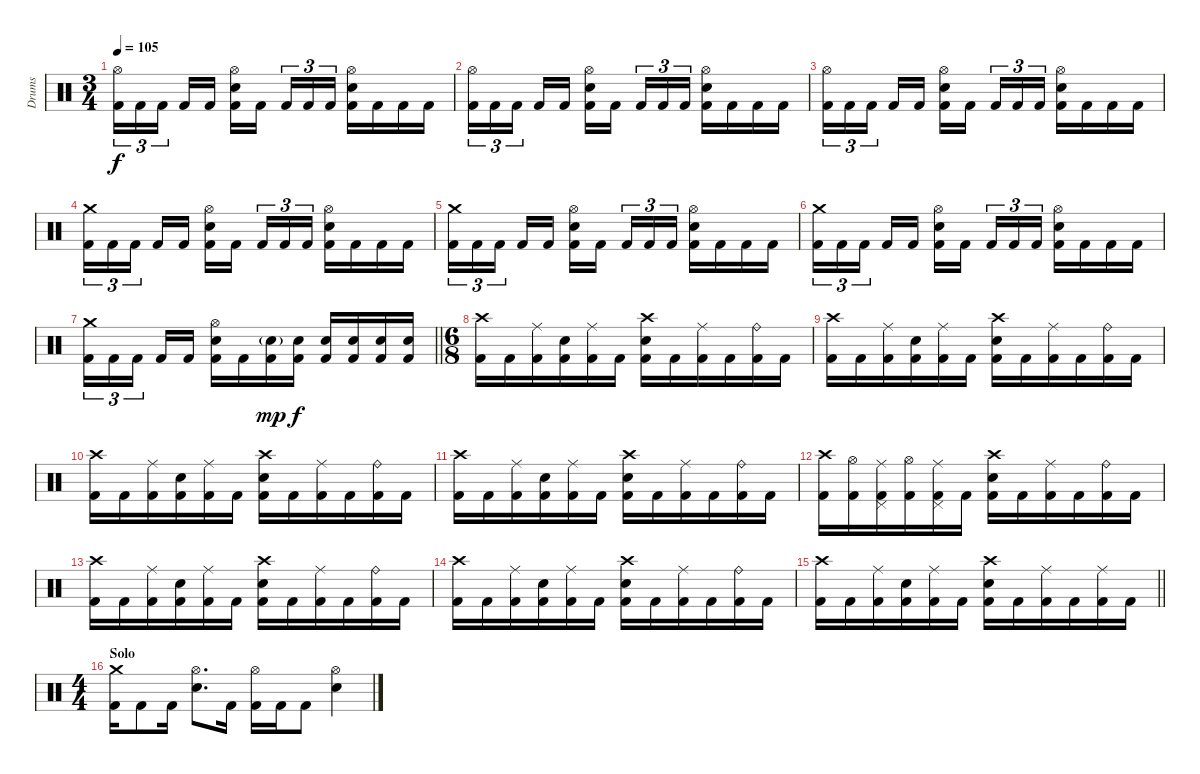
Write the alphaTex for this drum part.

\track ("Drums" "Drums") {instrument percussion}
\staff {score}
\articulation defaults
\ts (3 4)
\tempo 105
\clef neutral
\ks c
("Hi-Hat (open)" "Kick (hit) 2").16{tu (3 2) dy f} "Kick (hit) 2".16{tu (3 2)} "Kick (hit) 2".16{tu (3 2) beam splitsecondary} "Kick (hit) 2".16 "Kick (hit) 2".16 ("Hi-Hat (open)" "Electric Snare (hit)" "Kick (hit) 2").16 "Kick (hit) 2".16{beam splitsecondary} "Kick (hit) 2".16{tu (3 2)} "Kick (hit) 2".16{tu (3 2)} "Kick (hit) 2".16{tu (3 2)} ("Hi-Hat (open)" "Electric Snare (hit)" "Kick (hit) 2").16 "Kick (hit) 2".16 "Kick (hit) 2".16 "Kick (hit) 2".16 |
("Hi-Hat (open)" "Kick (hit) 2").16{tu (3 2)} "Kick (hit) 2".16{tu (3 2)} "Kick (hit) 2".16{tu (3 2) beam splitsecondary} "Kick (hit) 2".16 "Kick (hit) 2".16 ("Hi-Hat (open)" "Electric Snare (hit)" "Kick (hit) 2").16 "Kick (hit) 2".16{beam splitsecondary} "Kick (hit) 2".16{tu (3 2)} "Kick (hit) 2".16{tu (3 2)} "Kick (hit) 2".16{tu (3 2)} ("Hi-Hat (open)" "Electric Snare (hit)" "Kick (hit) 2").16 "Kick (hit) 2".16 "Kick (hit) 2".16 "Kick (hit) 2".16 |
("Hi-Hat (open)" "Kick (hit) 2").16{tu (3 2)} "Kick (hit) 2".16{tu (3 2)} "Kick (hit) 2".16{tu (3 2) beam splitsecondary} "Kick (hit) 2".16 "Kick (hit) 2".16 ("Hi-Hat (open)" "Electric Snare (hit)" "Kick (hit) 2").16 "Kick (hit) 2".16{beam splitsecondary} "Kick (hit) 2".16{tu (3 2)} "Kick (hit) 2".16{tu (3 2)} "Kick (hit) 2".16{tu (3 2)} ("Hi-Hat (open)" "Electric Snare (hit)" "Kick (hit) 2").16 "Kick (hit) 2".16 "Kick (hit) 2".16 "Kick (hit) 2".16 |
("Crash medium (hit)" "Kick (hit) 2").16{tu (3 2)} "Kick (hit) 2".16{tu (3 2)} "Kick (hit) 2".16{tu (3 2) beam splitsecondary} "Kick (hit) 2".16 "Kick (hit) 2".16 ("Hi-Hat (open)" "Electric Snare (hit)" "Kick (hit) 2").16 "Kick (hit) 2".16{beam splitsecondary} "Kick (hit) 2".16{tu (3 2)} "Kick (hit) 2".16{tu (3 2)} "Kick (hit) 2".16{tu (3 2)} ("Hi-Hat (open)" "Electric Snare (hit)" "Kick (hit) 2").16 "Kick (hit) 2".16 "Kick (hit) 2".16 "Kick (hit) 2".16 |
("Crash medium (hit)" "Kick (hit) 2").16{tu (3 2)} "Kick (hit) 2".16{tu (3 2)} "Kick (hit) 2".16{tu (3 2) beam splitsecondary} "Kick (hit) 2".16 "Kick (hit) 2".16 ("Hi-Hat (open)" "Electric Snare (hit)" "Kick (hit) 2").16 "Kick (hit) 2".16{beam splitsecondary} "Kick (hit) 2".16{tu (3 2)} "Kick (hit) 2".16{tu (3 2)} "Kick (hit) 2".16{tu (3 2)} ("Hi-Hat (open)" "Electric Snare (hit)" "Kick (hit) 2").16 "Kick (hit) 2".16 "Kick (hit) 2".16 "Kick (hit) 2".16 |
("Crash medium (hit)" "Kick (hit) 2").16{tu (3 2)} "Kick (hit) 2".16{tu (3 2)} "Kick (hit) 2".16{tu (3 2) beam splitsecondary} "Kick (hit) 2".16 "Kick (hit) 2".16 ("Hi-Hat (open)" "Electric Snare (hit)" "Kick (hit) 2").16 "Kick (hit) 2".16{beam splitsecondary} "Kick (hit) 2".16{tu (3 2)} "Kick (hit) 2".16{tu (3 2)} "Kick (hit) 2".16{tu (3 2)} ("Hi-Hat (open)" "Electric Snare (hit)" "Kick (hit) 2").16 "Kick (hit) 2".16 "Kick (hit) 2".16 "Kick (hit) 2".16 |
\barLineRight lightlight
("Crash medium (hit)" "Kick (hit) 2").16{tu (3 2)} "Kick (hit) 2".16{tu (3 2)} "Kick (hit) 2".16{tu (3 2) beam splitsecondary} "Kick (hit) 2".16 "Kick (hit) 2".16 ("Hi-Hat (open)" "Electric Snare (hit)" "Kick (hit) 2").16 "Kick (hit) 2".16 ("Electric Snare (hit)"{g} "Kick (hit) 2").16{dy mp} ("Electric Snare (hit)" "Kick (hit) 2").16{dy f} ("Electric Snare (hit)" "Kick (hit) 2").16 ("Electric Snare (hit)" "Kick (hit) 2").16 ("Electric Snare (hit)" "Kick (hit) 2").16 ("Electric Snare (hit)" "Kick (hit) 2").16 |
\ts (6 8)
("Crash high (hit)" "Kick (hit) 2").16 "Kick (hit) 2".16 ("Ride (middle)" "Kick (hit) 2").16 ("Electric Snare (hit)" "Kick (hit) 2").16 ("Ride (middle)" "Kick (hit) 2").16 "Kick (hit) 2".16 ("Crash high (hit)" "Electric Snare (hit)" "Kick (hit) 2").16 "Kick (hit) 2".16 ("Ride (middle)" "Kick (hit) 2").16 "Kick (hit) 2".16 ("Ride (bell)" "Kick (hit) 2").16 "Kick (hit) 2".16 |
("Crash high (hit)" "Kick (hit) 2").16 "Kick (hit) 2".16 ("Ride (middle)" "Kick (hit) 2").16 ("Electric Snare (hit)" "Kick (hit) 2").16 ("Ride (middle)" "Kick (hit) 2").16 "Kick (hit) 2".16 ("Crash high (hit)" "Electric Snare (hit)" "Kick (hit) 2").16 "Kick (hit) 2".16 ("Ride (middle)" "Kick (hit) 2").16 "Kick (hit) 2".16 ("Ride (bell)" "Kick (hit) 2").16 "Kick (hit) 2".16 |
("Crash high (hit)" "Kick (hit) 2").16 "Kick (hit) 2".16 ("Ride (middle)" "Kick (hit) 2").16 ("Electric Snare (hit)" "Kick (hit) 2").16 ("Ride (middle)" "Kick (hit) 2").16 "Kick (hit) 2".16 ("Crash high (hit)" "Electric Snare (hit)" "Kick (hit) 2").16 "Kick (hit) 2".16 ("Ride (middle)" "Kick (hit) 2").16 "Kick (hit) 2".16 ("Ride (bell)" "Kick (hit) 2").16 "Kick (hit) 2".16 |
("Crash high (hit)" "Kick (hit) 2").16 "Kick (hit) 2".16 ("Ride (middle)" "Kick (hit) 2").16 ("Electric Snare (hit)" "Kick (hit) 2").16 ("Ride (middle)" "Kick (hit) 2").16 "Kick (hit) 2".16 ("Crash high (hit)" "Electric Snare (hit)" "Kick (hit) 2").16 "Kick (hit) 2".16 ("Ride (middle)" "Kick (hit) 2").16 "Kick (hit) 2".16 ("Ride (bell)" "Kick (hit) 2").16 "Kick (hit) 2".16 |
("Crash high (hit)" "Kick (hit) 2").16 ("Hi-Hat (open)" "Kick (hit) 2").16 ("Ride (middle)" "Pedal Hi-Hat (hit)" "Kick (hit) 2").16 ("Hi-Hat (open)" "Kick (hit) 2").16 ("Ride (middle)" "Pedal Hi-Hat (hit)" "Kick (hit) 2").16 "Kick (hit) 2".16 ("Crash high (hit)" "Electric Snare (hit)" "Kick (hit) 2").16 "Kick (hit) 2".16 ("Ride (middle)" "Kick (hit) 2").16 "Kick (hit) 2".16 ("Ride (bell)" "Kick (hit) 2").16 "Kick (hit) 2".16 |
("Crash high (hit)" "Kick (hit) 2").16 "Kick (hit) 2".16 ("Ride (middle)" "Kick (hit) 2").16 ("Electric Snare (hit)" "Kick (hit) 2").16 ("Ride (middle)" "Kick (hit) 2").16 "Kick (hit) 2".16 ("Crash high (hit)" "Electric Snare (hit)" "Kick (hit) 2").16 "Kick (hit) 2".16 ("Ride (middle)" "Kick (hit) 2").16 "Kick (hit) 2".16 ("Ride (bell)" "Kick (hit) 2").16 "Kick (hit) 2".16 |
("Crash high (hit)" "Kick (hit) 2").16 "Kick (hit) 2".16 ("Ride (middle)" "Kick (hit) 2").16 ("Electric Snare (hit)" "Kick (hit) 2").16 ("Ride (middle)" "Kick (hit) 2").16 "Kick (hit) 2".16 ("Crash high (hit)" "Electric Snare (hit)" "Kick (hit) 2").16 "Kick (hit) 2".16 ("Ride (middle)" "Kick (hit) 2").16 "Kick (hit) 2".16 ("Ride (bell)" "Kick (hit) 2").16 "Kick (hit) 2".16 |
\barLineRight lightlight
("Crash high (hit)" "Kick (hit) 2").16 "Kick (hit) 2".16 ("Ride (middle)" "Kick (hit) 2").16 ("Electric Snare (hit)" "Kick (hit) 2").16 ("Ride (middle)" "Kick (hit) 2").16 "Kick (hit) 2".16 ("Crash high (hit)" "Electric Snare (hit)" "Kick (hit) 2").16 "Kick (hit) 2".16 ("Ride (middle)" "Kick (hit) 2").16 "Kick (hit) 2".16 ("Ride (middle)" "Kick (hit) 2").16 "Kick (hit) 2".16 |
\ts (4 4)
\section ("" "Solo")
("Crash medium (hit)" "Kick (hit) 2").16 "Kick (hit) 2".8 "Kick (hit) 2".16 ("Hi-Hat (open)" "Electric Snare (hit)").8{d} "Kick (hit) 2".16 ("Hi-Hat (open)" "Kick (hit) 2").16 "Kick (hit) 2".16 "Kick (hit) 2".8 ("Hi-Hat (open)" "Electric Snare (hit)").4
